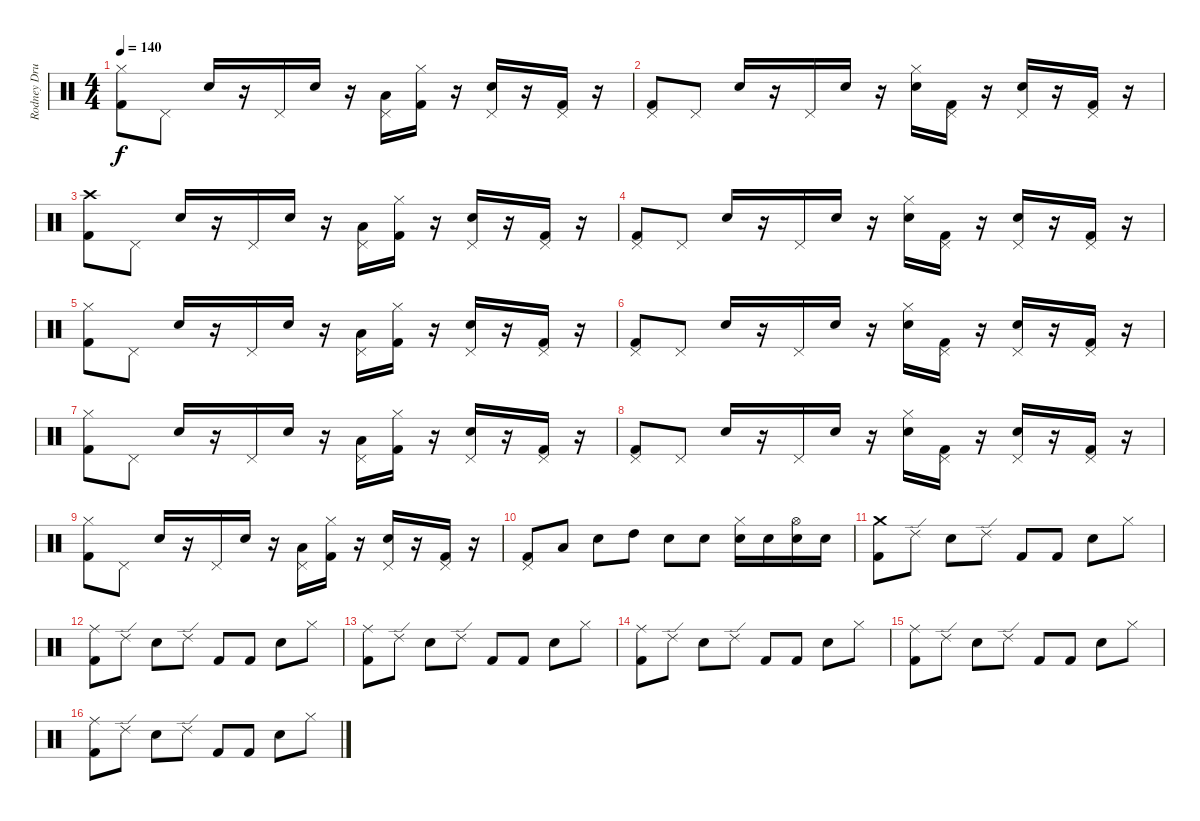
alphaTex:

\track ("Rodney Drums" "Rodney Dru") {instrument percussion}
\staff {score}
\articulation defaults
\ts (4 4)
\tempo 140
\clef neutral
\ks c
("Hi-Hat (closed)" "Kick (hit) 2").8{dy f} "Pedal Hi-Hat (hit)".8 "Electric Snare (hit)".16 r.16 "Pedal Hi-Hat (hit)".16 "Electric Snare (hit)".16 r.16 ("Pedal Hi-Hat (hit)" "Low Tom (hit)").16 ("Hi-Hat (closed)" "Kick (hit) 2").16 r.16 ("Pedal Hi-Hat (hit)" "Electric Snare (hit)").16 r.16 ("Pedal Hi-Hat (hit)" "Kick (hit) 2").16 r.16 |
("Pedal Hi-Hat (hit)" "Kick (hit) 2").8 "Pedal Hi-Hat (hit)".8 "Electric Snare (hit)".16 r.16 "Pedal Hi-Hat (hit)".16 "Electric Snare (hit)".16 r.16 ("Hi-Hat (closed)" "Electric Snare (hit)").16 ("Pedal Hi-Hat (hit)" "Kick (hit) 2").16 r.16 ("Pedal Hi-Hat (hit)" "Electric Snare (hit)").16 r.16 ("Pedal Hi-Hat (hit)" "Kick (hit) 2").16 r.16 |
("Crash high (hit)" "Kick (hit) 2").8 "Pedal Hi-Hat (hit)".8 "Electric Snare (hit)".16 r.16 "Pedal Hi-Hat (hit)".16 "Electric Snare (hit)".16 r.16 ("Pedal Hi-Hat (hit)" "Low Tom (hit)").16 ("Hi-Hat (closed)" "Kick (hit) 2").16 r.16 ("Pedal Hi-Hat (hit)" "Electric Snare (hit)").16 r.16 ("Pedal Hi-Hat (hit)" "Kick (hit) 2").16 r.16 |
("Pedal Hi-Hat (hit)" "Kick (hit) 2").8 "Pedal Hi-Hat (hit)".8 "Electric Snare (hit)".16 r.16 "Pedal Hi-Hat (hit)".16 "Electric Snare (hit)".16 r.16 ("Hi-Hat (closed)" "Electric Snare (hit)").16 ("Pedal Hi-Hat (hit)" "Kick (hit) 2").16 r.16 ("Pedal Hi-Hat (hit)" "Electric Snare (hit)").16 r.16 ("Pedal Hi-Hat (hit)" "Kick (hit) 2").16 r.16 |
("Hi-Hat (closed)" "Kick (hit) 2").8 "Pedal Hi-Hat (hit)".8 "Electric Snare (hit)".16 r.16 "Pedal Hi-Hat (hit)".16 "Electric Snare (hit)".16 r.16 ("Pedal Hi-Hat (hit)" "Low Tom (hit)").16 ("Hi-Hat (closed)" "Kick (hit) 2").16 r.16 ("Pedal Hi-Hat (hit)" "Electric Snare (hit)").16 r.16 ("Pedal Hi-Hat (hit)" "Kick (hit) 2").16 r.16 |
("Pedal Hi-Hat (hit)" "Kick (hit) 2").8 "Pedal Hi-Hat (hit)".8 "Electric Snare (hit)".16 r.16 "Pedal Hi-Hat (hit)".16 "Electric Snare (hit)".16 r.16 ("Hi-Hat (closed)" "Electric Snare (hit)").16 ("Pedal Hi-Hat (hit)" "Kick (hit) 2").16 r.16 ("Pedal Hi-Hat (hit)" "Electric Snare (hit)").16 r.16 ("Pedal Hi-Hat (hit)" "Kick (hit) 2").16 r.16 |
("Hi-Hat (closed)" "Kick (hit) 2").8 "Pedal Hi-Hat (hit)".8 "Electric Snare (hit)".16 r.16 "Pedal Hi-Hat (hit)".16 "Electric Snare (hit)".16 r.16 ("Pedal Hi-Hat (hit)" "Low Tom (hit)").16 ("Hi-Hat (closed)" "Kick (hit) 2").16 r.16 ("Pedal Hi-Hat (hit)" "Electric Snare (hit)").16 r.16 ("Pedal Hi-Hat (hit)" "Kick (hit) 2").16 r.16 |
("Pedal Hi-Hat (hit)" "Kick (hit) 2").8 "Pedal Hi-Hat (hit)".8 "Electric Snare (hit)".16 r.16 "Pedal Hi-Hat (hit)".16 "Electric Snare (hit)".16 r.16 ("Hi-Hat (closed)" "Electric Snare (hit)").16 ("Pedal Hi-Hat (hit)" "Kick (hit) 2").16 r.16 ("Pedal Hi-Hat (hit)" "Electric Snare (hit)").16 r.16 ("Pedal Hi-Hat (hit)" "Kick (hit) 2").16 r.16 |
("Hi-Hat (closed)" "Kick (hit) 2").8 "Pedal Hi-Hat (hit)".8 "Electric Snare (hit)".16 r.16 "Pedal Hi-Hat (hit)".16 "Electric Snare (hit)".16 r.16 ("Pedal Hi-Hat (hit)" "Low Tom (hit)").16 ("Hi-Hat (closed)" "Kick (hit) 2").16 r.16 ("Pedal Hi-Hat (hit)" "Electric Snare (hit)").16 r.16 ("Pedal Hi-Hat (hit)" "Kick (hit) 2").16 r.16 |
("Pedal Hi-Hat (hit)" "Kick (hit) 2").8 "Low Tom (hit)".8 "Electric Snare (hit)".8 "High Tom (hit)".8 "Electric Snare (hit)".8 "Electric Snare (hit)".8 ("Hi-Hat (closed)" "Electric Snare (hit)").16 "Electric Snare (hit)".16 ("Hi-Hat (open)" "Electric Snare (hit)").16 "Electric Snare (hit)".16 |
("Crash medium (hit)" "Kick (hit) 2").8 "Ride (edge) 2".8 "Electric Snare (hit)".8 "Ride (edge) 2".8 "Kick (hit) 2".8 "Kick (hit) 2".8 "Electric Snare (hit)".8 "Hi-Hat (closed)".8 |
("Ride (middle)" "Kick (hit) 2").8 "Ride (edge) 2".8 "Electric Snare (hit)".8 "Ride (edge) 2".8 "Kick (hit) 2".8 "Kick (hit) 2".8 "Electric Snare (hit)".8 "Hi-Hat (closed)".8 |
("Ride (middle)" "Kick (hit) 2").8 "Ride (edge) 2".8 "Electric Snare (hit)".8 "Ride (edge) 2".8 "Kick (hit) 2".8 "Kick (hit) 2".8 "Electric Snare (hit)".8 "Hi-Hat (closed)".8 |
("Ride (middle)" "Kick (hit) 2").8 "Ride (edge) 2".8 "Electric Snare (hit)".8 "Ride (edge) 2".8 "Kick (hit) 2".8 "Kick (hit) 2".8 "Electric Snare (hit)".8 "Hi-Hat (closed)".8 |
("Ride (middle)" "Kick (hit) 2").8 "Ride (edge) 2".8 "Electric Snare (hit)".8 "Ride (edge) 2".8 "Kick (hit) 2".8 "Kick (hit) 2".8 "Electric Snare (hit)".8 "Hi-Hat (closed)".8 |
("Ride (middle)" "Kick (hit) 2").8 "Ride (edge) 2".8 "Electric Snare (hit)".8 "Ride (edge) 2".8 "Kick (hit) 2".8 "Kick (hit) 2".8 "Electric Snare (hit)".8 "Hi-Hat (closed)".8
